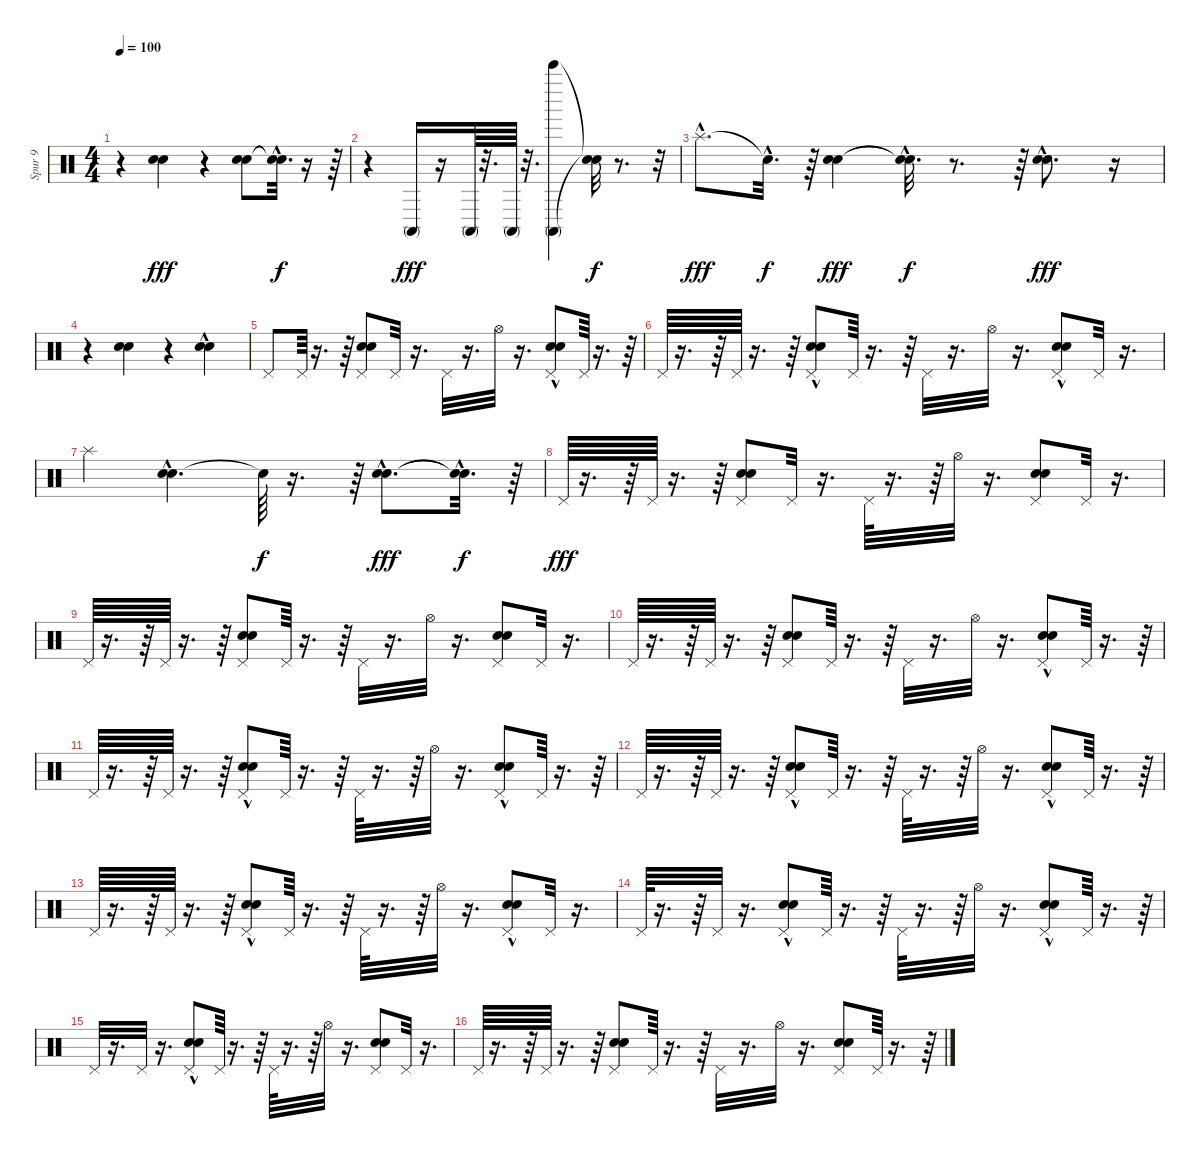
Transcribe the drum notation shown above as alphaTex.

\track ("Spur 9" "Spur 9") {instrument percussion}
\staff {score}
\articulation defaults
\ts (4 4)
\tempo 100
\clef neutral
\ks c
r.4{dy fff} ("Snare (hit) 2" "Metronome (bell)").4 r.4 ("Snare (hit) 2" "Metronome (bell)").8 ("Snare (hit)"{hac t} "Snare (hit)"{t}).32{d dy f} r.16 r.64 |
r.4 "Conga high (mute)".16{dy fff} r.16 "Conga high (mute)".64 r.32{d} "Conga high (mute)".64 r.32{d} ("Bell Tree (hit)" "Conga high (mute)").4 ("Snare (hit)"{t} "Snare (hit)"{t}).32{dy f} r.8{d} r.32 |
"Splash (hit)"{hac}.8{d dy fff} "Snare (hit)"{hac t}.32{d dy f} r.64 ("Snare (hit) 2" "Metronome (bell)").4{dy fff} ("Snare (hit)"{hac t} "Snare (hit)"{hac t}).32{d dy f} r.8{d} r.64 ("Snare (hit) 2"{hac} "Metronome (bell)"{hac}).8{d dy fff} r.16 |
r.4 ("Metronome (bell)" "Snare (hit) 2").4 r.4 ("Metronome (bell)"{hac} "Snare (hit) 2").4 |
"Pedal Hi-Hat (hit)".8 "Pedal Hi-Hat (hit)".64 r.16{d} r.64 ("Snare (hit) 2" "Metronome (bell)" "Pedal Hi-Hat (hit)").8 "Pedal Hi-Hat (hit)".32 r.16{d} "Pedal Hi-Hat (hit)".32 r.16{d} "Hi-Hat (open)".32 r.16{d} ("Snare (hit) 2"{hac} "Metronome (bell)"{hac} "Pedal Hi-Hat (hit)").8 "Pedal Hi-Hat (hit)".64 r.16{d} r.64 |
"Pedal Hi-Hat (hit)".64 r.16{d} r.64 "Pedal Hi-Hat (hit)".64 r.16{d} r.64 ("Snare (hit) 2"{hac} "Metronome (bell)"{hac} "Pedal Hi-Hat (hit)").8 "Pedal Hi-Hat (hit)".64 r.16{d} r.64 "Pedal Hi-Hat (hit)".32 r.16{d} "Hi-Hat (open)".32 r.16{d} ("Snare (hit) 2"{hac} "Metronome (bell)"{hac} "Pedal Hi-Hat (hit)").8 "Pedal Hi-Hat (hit)".32 r.16{d} |
"Splash (hit)".4 ("Snare (hit) 2"{hac} "Metronome (bell)"{hac}).4{d} "Snare (hit)"{t}.64{dy f} r.16{d} r.64 ("Snare (hit) 2"{hac} "Metronome (bell)"{hac}).8{d dy fff} ("Snare (hit)"{hac t} "Snare (hit)"{t}).32{d dy f} r.64 |
"Pedal Hi-Hat (hit)".64{dy fff} r.16{d} r.64 "Pedal Hi-Hat (hit)".64 r.16{d} r.64 ("Snare (hit) 2" "Metronome (bell)" "Pedal Hi-Hat (hit)").8 "Pedal Hi-Hat (hit)".32 r.16{d} "Pedal Hi-Hat (hit)".64 r.16{d} r.64 "Hi-Hat (open)".32 r.16{d} ("Snare (hit) 2" "Metronome (bell)" "Pedal Hi-Hat (hit)").8 "Pedal Hi-Hat (hit)".32 r.16{d} |
"Pedal Hi-Hat (hit)".64 r.16{d} r.64 "Pedal Hi-Hat (hit)".64 r.16{d} r.64 ("Snare (hit) 2" "Metronome (bell)" "Pedal Hi-Hat (hit)").8 "Pedal Hi-Hat (hit)".64 r.16{d} r.64 "Pedal Hi-Hat (hit)".32 r.16{d} "Hi-Hat (open)".32 r.16{d} ("Snare (hit) 2" "Metronome (bell)" "Pedal Hi-Hat (hit)").8 "Pedal Hi-Hat (hit)".32 r.16{d} |
"Pedal Hi-Hat (hit)".64 r.16{d} r.64 "Pedal Hi-Hat (hit)".64 r.16{d} r.64 ("Snare (hit) 2" "Metronome (bell)" "Pedal Hi-Hat (hit)").8 "Pedal Hi-Hat (hit)".64 r.16{d} r.64 "Pedal Hi-Hat (hit)".32 r.16{d} "Hi-Hat (open)".32 r.16{d} ("Snare (hit) 2"{hac} "Metronome (bell)"{hac} "Pedal Hi-Hat (hit)").8 "Pedal Hi-Hat (hit)".64 r.16{d} r.64 |
"Pedal Hi-Hat (hit)".64 r.16{d} r.64 "Pedal Hi-Hat (hit)".64 r.16{d} r.64 ("Snare (hit) 2"{hac} "Metronome (bell)"{hac} "Pedal Hi-Hat (hit)").8 "Pedal Hi-Hat (hit)".64 r.16{d} r.64 "Pedal Hi-Hat (hit)".64 r.16{d} r.64 "Hi-Hat (open)".32 r.16{d} ("Snare (hit) 2"{hac} "Pedal Hi-Hat (hit)" "Metronome (bell)"{hac}).8 "Pedal Hi-Hat (hit)".64 r.16{d} r.64 |
"Pedal Hi-Hat (hit)".64 r.16{d} r.64 "Pedal Hi-Hat (hit)".64 r.16{d} r.64 ("Snare (hit) 2"{hac} "Metronome (bell)"{hac} "Pedal Hi-Hat (hit)").8 "Pedal Hi-Hat (hit)".64 r.16{d} r.64 "Pedal Hi-Hat (hit)".64 r.16{d} r.64 "Hi-Hat (open)".32 r.16{d} ("Snare (hit) 2"{hac} "Pedal Hi-Hat (hit)" "Metronome (bell)"{hac}).8 "Pedal Hi-Hat (hit)".64 r.16{d} r.64 |
"Pedal Hi-Hat (hit)".64 r.16{d} r.64 "Pedal Hi-Hat (hit)".64 r.16{d} r.64 ("Pedal Hi-Hat (hit)" "Snare (hit) 2"{hac} "Metronome (bell)"{hac}).8 "Pedal Hi-Hat (hit)".64 r.16{d} r.64 "Pedal Hi-Hat (hit)".64 r.16{d} r.64 "Hi-Hat (open)".32 r.16{d} ("Snare (hit) 2"{hac} "Metronome (bell)"{hac} "Pedal Hi-Hat (hit)").8 "Pedal Hi-Hat (hit)".32 r.16{d} |
"Pedal Hi-Hat (hit)".64 r.16{d} r.64 "Pedal Hi-Hat (hit)".32 r.16{d} ("Snare (hit) 2"{hac} "Metronome (bell)"{hac} "Pedal Hi-Hat (hit)").8 "Pedal Hi-Hat (hit)".64 r.16{d} r.64 "Pedal Hi-Hat (hit)".64 r.16{d} r.64 "Hi-Hat (open)".32 r.16{d} ("Snare (hit) 2"{hac} "Metronome (bell)"{hac} "Pedal Hi-Hat (hit)").8 "Pedal Hi-Hat (hit)".64 r.16{d} r.64 |
"Pedal Hi-Hat (hit)".32 r.16{d} "Pedal Hi-Hat (hit)".32 r.16{d} ("Snare (hit) 2"{hac} "Metronome (bell)"{hac} "Pedal Hi-Hat (hit)").8 "Pedal Hi-Hat (hit)".64 r.16{d} r.64 "Pedal Hi-Hat (hit)".64 r.16{d} r.64 "Hi-Hat (open)".32 r.16{d} ("Snare (hit) 2" "Metronome (bell)" "Pedal Hi-Hat (hit)").8 "Pedal Hi-Hat (hit)".32 r.16{d} |
"Pedal Hi-Hat (hit)".64 r.16{d} r.64 "Pedal Hi-Hat (hit)".64 r.16{d} r.64 ("Snare (hit) 2" "Metronome (bell)" "Pedal Hi-Hat (hit)").8 "Pedal Hi-Hat (hit)".64 r.16{d} r.64 "Pedal Hi-Hat (hit)".32 r.16{d} "Hi-Hat (open)".32 r.16{d} ("Snare (hit) 2" "Pedal Hi-Hat (hit)" "Metronome (bell)").8 "Pedal Hi-Hat (hit)".64 r.16{d} r.64
